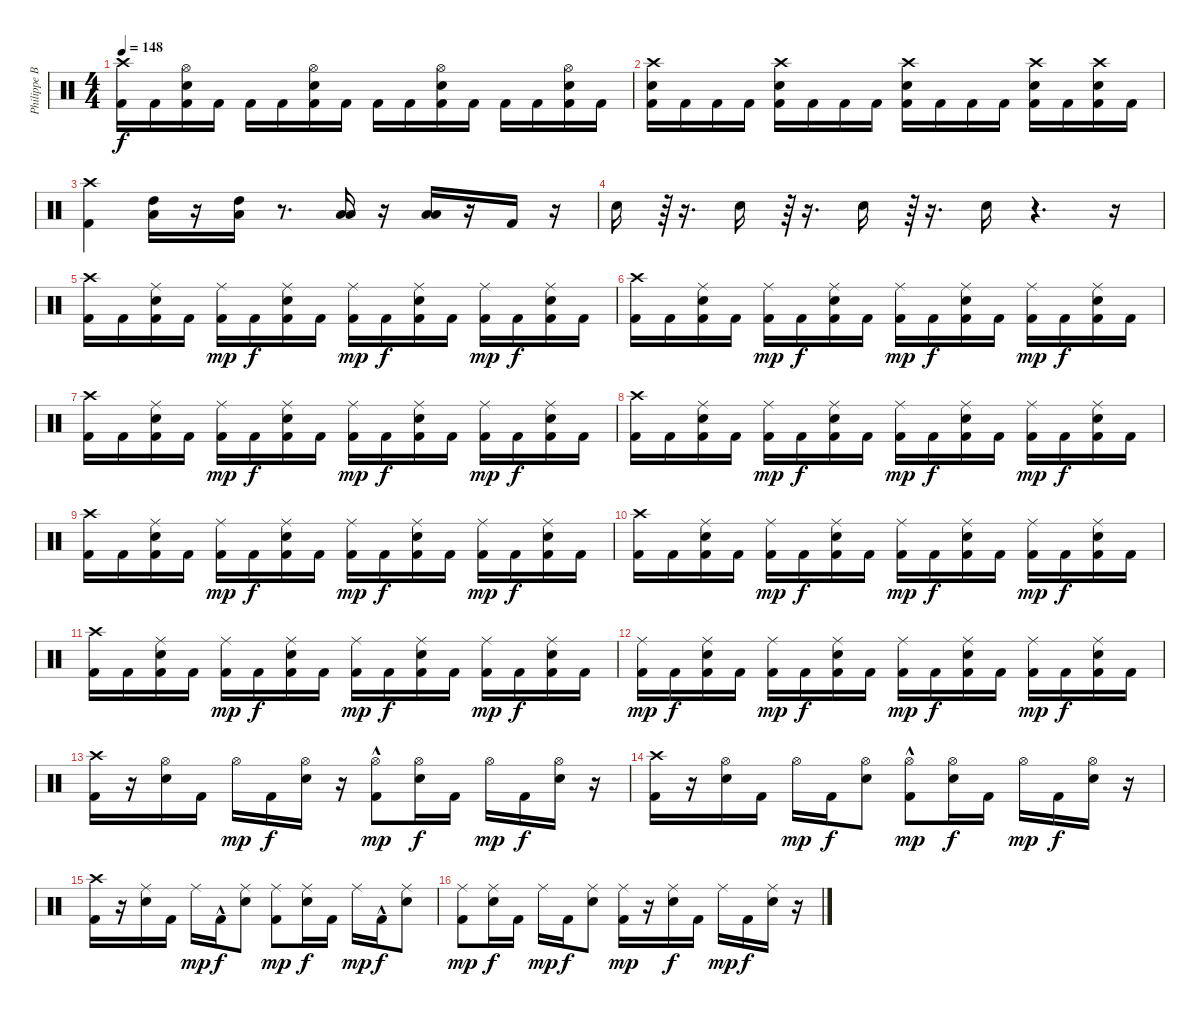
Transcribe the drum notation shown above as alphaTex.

\track ("Philippe Borda" "Philippe B") {instrument percussion}
\staff {score}
\articulation defaults
\ts (4 4)
\tempo 148
\clef neutral
\ks c
("Crash high (hit)" "Kick (hit) 2").16{dy f} "Kick (hit) 2".16 ("Kick (hit) 2" "Snare (hit) 2" "Hi-Hat (open)").16 "Kick (hit) 2".16 "Kick (hit) 2".16 "Kick (hit) 2".16 ("Kick (hit) 2" "Snare (hit) 2" "Hi-Hat (open)").16 "Kick (hit) 2".16 "Kick (hit) 2".16 "Kick (hit) 2".16 ("Kick (hit) 2" "Snare (hit) 2" "Hi-Hat (open)").16 "Kick (hit) 2".16 "Kick (hit) 2".16 "Kick (hit) 2".16 ("Kick (hit) 2" "Snare (hit) 2" "Hi-Hat (open)").16 "Kick (hit) 2".16 |
("Crash high (hit)" "Kick (hit) 2" "Snare (hit) 2").16 "Kick (hit) 2".16 "Kick (hit) 2".16 "Kick (hit) 2".16 ("Crash high (hit)" "Kick (hit) 2" "Snare (hit) 2").16 "Kick (hit) 2".16 "Kick (hit) 2".16 "Kick (hit) 2".16 ("Crash high (hit)" "Kick (hit) 2" "Snare (hit) 2").16 "Kick (hit) 2".16 "Kick (hit) 2".16 "Kick (hit) 2".16 ("Crash high (hit)" "Kick (hit) 2" "Snare (hit) 2").16 "Kick (hit) 2".16 ("Crash high (hit)" "Kick (hit) 2" "Snare (hit) 2").16 "Kick (hit) 2".16 |
("Crash high (hit)" "Kick (hit) 2").4 ("Low Tom (hit)" "High Tom (hit)").16 r.16 ("Low Tom (hit)" "High Tom (hit)").16 r.8{d} ("Low Floor Tom (hit)" "Low Tom (hit)").16 r.16 ("Low Floor Tom (hit)" "Low Tom (hit)").16 r.16 "Kick (hit) 2".16 r.16 |
"Snare (hit) 2".16 r.64{tu (3 2)} r.16{d} "Snare (hit) 2".16 r.64{tu (3 2)} r.16{d} "Snare (hit) 2".16 r.64{tu (3 2)} r.16{d} "Snare (hit) 2".16 r.4{d} r.16 |
("Crash high (hit)" "Kick (hit) 2").16 "Kick (hit) 2".16 ("Kick (hit) 2" "Snare (hit) 2" "Ride (middle)").16 "Kick (hit) 2".16 ("Kick (hit) 2" "Ride (middle)").16{dy mp} "Kick (hit) 2".16{dy f} ("Kick (hit) 2" "Ride (middle)" "Snare (hit) 2").16 "Kick (hit) 2".16 ("Kick (hit) 2" "Ride (middle)").16{dy mp} "Kick (hit) 2".16{dy f} ("Kick (hit) 2" "Ride (middle)" "Snare (hit) 2").16 "Kick (hit) 2".16 ("Kick (hit) 2" "Ride (middle)").16{dy mp} "Kick (hit) 2".16{dy f} ("Kick (hit) 2" "Ride (middle)" "Snare (hit) 2").16 "Kick (hit) 2".16 |
("Crash high (hit)" "Kick (hit) 2").16 "Kick (hit) 2".16 ("Kick (hit) 2" "Snare (hit) 2" "Ride (middle)").16 "Kick (hit) 2".16 ("Kick (hit) 2" "Ride (middle)").16{dy mp} "Kick (hit) 2".16{dy f} ("Kick (hit) 2" "Snare (hit) 2" "Ride (middle)").16 "Kick (hit) 2".16 ("Kick (hit) 2" "Ride (middle)").16{dy mp} "Kick (hit) 2".16{dy f} ("Kick (hit) 2" "Snare (hit) 2" "Ride (middle)").16 "Kick (hit) 2".16 ("Kick (hit) 2" "Ride (middle)").16{dy mp} "Kick (hit) 2".16{dy f} ("Kick (hit) 2" "Snare (hit) 2" "Ride (middle)").16 "Kick (hit) 2".16 |
("Crash high (hit)" "Kick (hit) 2").16 "Kick (hit) 2".16 ("Kick (hit) 2" "Snare (hit) 2" "Ride (middle)").16 "Kick (hit) 2".16 ("Kick (hit) 2" "Ride (middle)").16{dy mp} "Kick (hit) 2".16{dy f} ("Kick (hit) 2" "Snare (hit) 2" "Ride (middle)").16 "Kick (hit) 2".16 ("Kick (hit) 2" "Ride (middle)").16{dy mp} "Kick (hit) 2".16{dy f} ("Kick (hit) 2" "Snare (hit) 2" "Ride (middle)").16 "Kick (hit) 2".16 ("Kick (hit) 2" "Ride (middle)").16{dy mp} "Kick (hit) 2".16{dy f} ("Kick (hit) 2" "Snare (hit) 2" "Ride (middle)").16 "Kick (hit) 2".16 |
("Crash high (hit)" "Kick (hit) 2").16 "Kick (hit) 2".16 ("Kick (hit) 2" "Snare (hit) 2" "Ride (middle)").16 "Kick (hit) 2".16 ("Kick (hit) 2" "Ride (middle)").16{dy mp} "Kick (hit) 2".16{dy f} ("Kick (hit) 2" "Snare (hit) 2" "Ride (middle)").16 "Kick (hit) 2".16 ("Kick (hit) 2" "Ride (middle)").16{dy mp} "Kick (hit) 2".16{dy f} ("Kick (hit) 2" "Snare (hit) 2" "Ride (middle)").16 "Kick (hit) 2".16 ("Kick (hit) 2" "Ride (middle)").16{dy mp} "Kick (hit) 2".16{dy f} ("Kick (hit) 2" "Snare (hit) 2" "Ride (middle)").16 "Kick (hit) 2".16 |
("Crash high (hit)" "Kick (hit) 2").16 "Kick (hit) 2".16 ("Kick (hit) 2" "Snare (hit) 2" "Ride (middle)").16 "Kick (hit) 2".16 ("Kick (hit) 2" "Ride (middle)").16{dy mp} "Kick (hit) 2".16{dy f} ("Kick (hit) 2" "Snare (hit) 2" "Ride (middle)").16 "Kick (hit) 2".16 ("Kick (hit) 2" "Ride (middle)").16{dy mp} "Kick (hit) 2".16{dy f} ("Kick (hit) 2" "Snare (hit) 2" "Ride (middle)").16 "Kick (hit) 2".16 ("Kick (hit) 2" "Ride (middle)").16{dy mp} "Kick (hit) 2".16{dy f} ("Kick (hit) 2" "Snare (hit) 2" "Ride (middle)").16 "Kick (hit) 2".16 |
("Crash high (hit)" "Kick (hit) 2").16 "Kick (hit) 2".16 ("Kick (hit) 2" "Snare (hit) 2" "Ride (middle)").16 "Kick (hit) 2".16 ("Kick (hit) 2" "Ride (middle)").16{dy mp} "Kick (hit) 2".16{dy f} ("Kick (hit) 2" "Snare (hit) 2" "Ride (middle)").16 "Kick (hit) 2".16 ("Kick (hit) 2" "Ride (middle)").16{dy mp} "Kick (hit) 2".16{dy f} ("Kick (hit) 2" "Snare (hit) 2" "Ride (middle)").16 "Kick (hit) 2".16 ("Kick (hit) 2" "Ride (middle)").16{dy mp} "Kick (hit) 2".16{dy f} ("Kick (hit) 2" "Snare (hit) 2" "Ride (middle)").16 "Kick (hit) 2".16 |
("Crash high (hit)" "Kick (hit) 2").16 "Kick (hit) 2".16 ("Kick (hit) 2" "Snare (hit) 2" "Ride (middle)").16 "Kick (hit) 2".16 ("Kick (hit) 2" "Ride (middle)").16{dy mp} "Kick (hit) 2".16{dy f} ("Kick (hit) 2" "Snare (hit) 2" "Ride (middle)").16 "Kick (hit) 2".16 ("Kick (hit) 2" "Ride (middle)").16{dy mp} "Kick (hit) 2".16{dy f} ("Kick (hit) 2" "Snare (hit) 2" "Ride (middle)").16 "Kick (hit) 2".16 ("Kick (hit) 2" "Ride (middle)").16{dy mp} "Kick (hit) 2".16{dy f} ("Kick (hit) 2" "Snare (hit) 2" "Ride (middle)").16 "Kick (hit) 2".16 |
("Kick (hit) 2" "Ride (middle)").16{dy mp} "Kick (hit) 2".16{dy f} ("Kick (hit) 2" "Snare (hit) 2" "Ride (middle)").16 "Kick (hit) 2".16 ("Kick (hit) 2" "Ride (middle)").16{dy mp} "Kick (hit) 2".16{dy f} ("Kick (hit) 2" "Snare (hit) 2" "Ride (middle)").16 "Kick (hit) 2".16 ("Kick (hit) 2" "Ride (middle)").16{dy mp} "Kick (hit) 2".16{dy f} ("Kick (hit) 2" "Snare (hit) 2" "Ride (middle)").16 "Kick (hit) 2".16 ("Kick (hit) 2" "Ride (middle)").16{dy mp} "Kick (hit) 2".16{dy f} ("Kick (hit) 2" "Snare (hit) 2" "Ride (middle)").16 "Kick (hit) 2".16 |
("Crash high (hit)" "Kick (hit) 2").16 r.16 ("Hi-Hat (open)" "Snare (hit) 2").16 "Kick (hit) 2".16 "Hi-Hat (open)".16{dy mp} "Kick (hit) 2".16{dy f} ("Snare (hit) 2" "Hi-Hat (open)").16 r.16 ("Hi-Hat (open)" "Kick (hit) 2"{hac}).8{dy mp} ("Hi-Hat (open)" "Snare (hit) 2").16{dy f} "Kick (hit) 2".16 "Hi-Hat (open)".16{dy mp} "Kick (hit) 2".16{dy f} ("Hi-Hat (open)" "Snare (hit) 2").16 r.16 |
("Crash high (hit)" "Kick (hit) 2").16 r.16 ("Snare (hit) 2" "Hi-Hat (open)").16 "Kick (hit) 2".16 "Hi-Hat (open)".16{dy mp} "Kick (hit) 2".16{dy f} ("Snare (hit) 2" "Hi-Hat (open)").8 ("Kick (hit) 2"{hac} "Hi-Hat (open)").8{dy mp} ("Snare (hit) 2" "Hi-Hat (open)").16{dy f} "Kick (hit) 2".16 "Hi-Hat (open)".16{dy mp} "Kick (hit) 2".16{dy f} ("Snare (hit) 2" "Hi-Hat (open)").16 r.16 |
("Crash high (hit)" "Kick (hit) 2").16 r.16 ("Ride (middle)" "Snare (hit) 2").16 "Kick (hit) 2".16 "Ride (middle)".16{dy mp} "Kick (hit) 2"{hac}.16{dy f} ("Ride (middle)" "Snare (hit) 2").8 ("Ride (middle)" "Kick (hit) 2").8{dy mp} ("Ride (middle)" "Snare (hit) 2").16{dy f} "Kick (hit) 2".16 "Ride (middle)".16{dy mp} "Kick (hit) 2"{hac}.16{dy f} ("Ride (middle)" "Snare (hit) 2").8 |
("Kick (hit) 2" "Ride (middle)").8{dy mp} ("Ride (middle)" "Snare (hit) 2").16{dy f} "Kick (hit) 2".16 "Ride (middle)".16{dy mp} "Kick (hit) 2".16{dy f} ("Ride (middle)" "Snare (hit) 2").8 ("Kick (hit) 2" "Ride (middle)").16{dy mp} r.16 ("Ride (middle)" "Snare (hit) 2").16{dy f} "Kick (hit) 2".16 "Ride (middle)".16{dy mp} "Kick (hit) 2".16{dy f} ("Ride (middle)" "Snare (hit) 2").16 r.16
